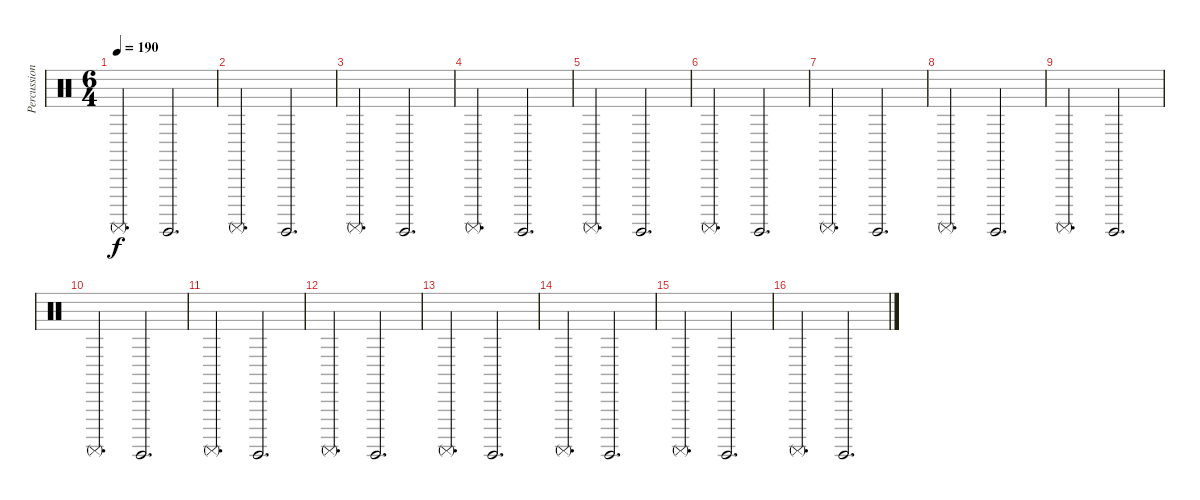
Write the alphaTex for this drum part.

\track ("Percussion" "Percussion") {instrument percussion}
\staff {score}
\articulation defaults
\ts (6 4)
\tempo 190
\clef neutral
\ks c "Surdo (mute)".2{d dy f} "Surdo (hit)".2{d}
|
"Surdo (mute)".2{d} "Surdo (hit)".2{d} |
"Surdo (mute)".2{d} "Surdo (hit)".2{d} |
"Surdo (mute)".2{d} "Surdo (hit)".2{d} |
"Surdo (mute)".2{d} "Surdo (hit)".2{d} |
"Surdo (mute)".2{d} "Surdo (hit)".2{d} |
"Surdo (mute)".2{d} "Surdo (hit)".2{d} |
"Surdo (mute)".2{d} "Surdo (hit)".2{d} |
"Surdo (mute)".2{d} "Surdo (hit)".2{d} |
"Surdo (mute)".2{d} "Surdo (hit)".2{d} |
"Surdo (mute)".2{d} "Surdo (hit)".2{d} |
"Surdo (mute)".2{d} "Surdo (hit)".2{d} |
"Surdo (mute)".2{d} "Surdo (hit)".2{d} |
"Surdo (mute)".2{d} "Surdo (hit)".2{d} |
"Surdo (mute)".2{d} "Surdo (hit)".2{d} |
"Surdo (mute)".2{d} "Surdo (hit)".2{d}
